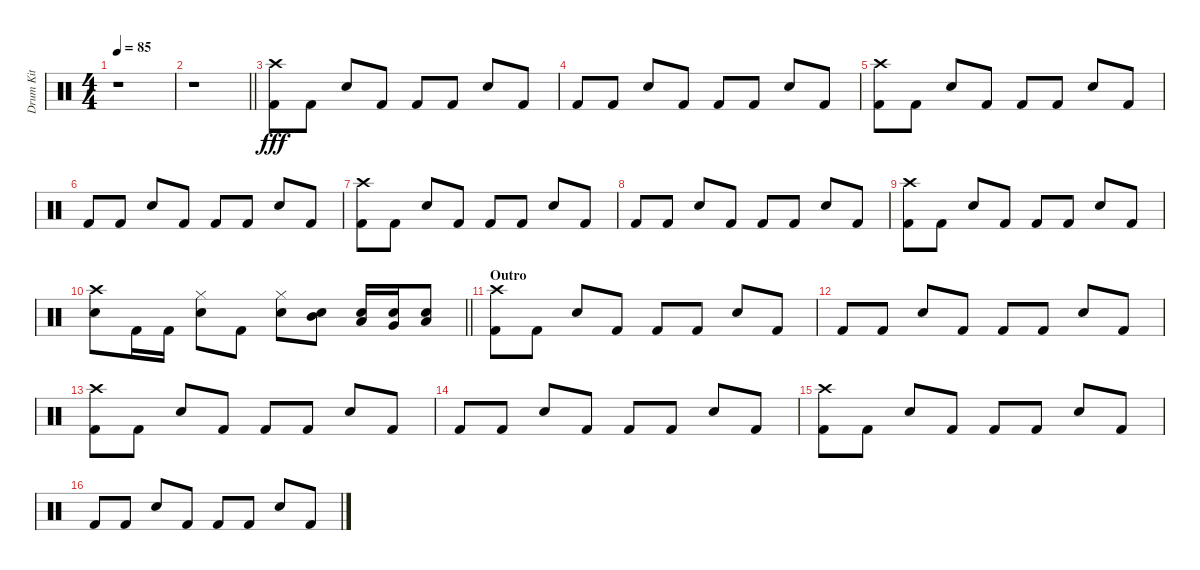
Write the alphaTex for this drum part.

\track ("Drum Kit" "Drum Kit") {instrument percussion}
\staff {score}
\articulation defaults
\ts (4 4)
\tempo 85
\clef neutral
\ks c
r.1{dy f} |
\barLineRight lightlight
r.1 |
("Crash high (hit)" "Kick (hit) 2").8{dy fff} "Kick (hit) 2".8 "Snare (hit) 2".8 "Kick (hit) 2".8 "Kick (hit) 2".8 "Kick (hit) 2".8 "Snare (hit) 2".8 "Kick (hit) 2".8 |
"Kick (hit) 2".8 "Kick (hit) 2".8 "Snare (hit) 2".8 "Kick (hit) 2".8 "Kick (hit) 2".8 "Kick (hit) 2".8 "Snare (hit) 2".8 "Kick (hit) 2".8 |
("Crash high (hit)" "Kick (hit) 2").8 "Kick (hit) 2".8 "Snare (hit) 2".8 "Kick (hit) 2".8 "Kick (hit) 2".8 "Kick (hit) 2".8 "Snare (hit) 2".8 "Kick (hit) 2".8 |
"Kick (hit) 2".8 "Kick (hit) 2".8 "Snare (hit) 2".8 "Kick (hit) 2".8 "Kick (hit) 2".8 "Kick (hit) 2".8 "Snare (hit) 2".8 "Kick (hit) 2".8 |
("Crash high (hit)" "Kick (hit) 2").8 "Kick (hit) 2".8 "Snare (hit) 2".8 "Kick (hit) 2".8 "Kick (hit) 2".8 "Kick (hit) 2".8 "Snare (hit) 2".8 "Kick (hit) 2".8 |
"Kick (hit) 2".8 "Kick (hit) 2".8 "Snare (hit) 2".8 "Kick (hit) 2".8 "Kick (hit) 2".8 "Kick (hit) 2".8 "Snare (hit) 2".8 "Kick (hit) 2".8 |
("Crash high (hit)" "Kick (hit) 2").8 "Kick (hit) 2".8 "Snare (hit) 2".8 "Kick (hit) 2".8 "Kick (hit) 2".8 "Kick (hit) 2".8 "Snare (hit) 2".8 "Kick (hit) 2".8 |
\barLineRight lightlight
("Crash high (hit)" "Snare (hit) 2").8 "Kick (hit) 2".16 "Kick (hit) 2".16 ("Hi-Hat (closed)" "Snare (hit) 2").8 "Kick (hit) 2".8 ("Hi-Hat (closed)" "Snare (hit) 2").8 ("Mid Tom (hit)" "Snare (hit) 2").8 ("Low Tom (hit)" "Snare (hit) 2").16 ("Very Low Tom (hit)" "Snare (hit) 2").16 ("Low Floor Tom (hit)" "Snare (hit) 2").8 |
\section ("" "Outro")
("Crash high (hit)" "Kick (hit) 2").8 "Kick (hit) 2".8 "Snare (hit) 2".8 "Kick (hit) 2".8 "Kick (hit) 2".8 "Kick (hit) 2".8 "Snare (hit) 2".8 "Kick (hit) 2".8 |
"Kick (hit) 2".8 "Kick (hit) 2".8 "Snare (hit) 2".8 "Kick (hit) 2".8 "Kick (hit) 2".8 "Kick (hit) 2".8 "Snare (hit) 2".8 "Kick (hit) 2".8 |
("Crash high (hit)" "Kick (hit) 2").8 "Kick (hit) 2".8 "Snare (hit) 2".8 "Kick (hit) 2".8 "Kick (hit) 2".8 "Kick (hit) 2".8 "Snare (hit) 2".8 "Kick (hit) 2".8 |
"Kick (hit) 2".8 "Kick (hit) 2".8 "Snare (hit) 2".8 "Kick (hit) 2".8 "Kick (hit) 2".8 "Kick (hit) 2".8 "Snare (hit) 2".8 "Kick (hit) 2".8 |
("Crash high (hit)" "Kick (hit) 2").8 "Kick (hit) 2".8 "Snare (hit) 2".8 "Kick (hit) 2".8 "Kick (hit) 2".8 "Kick (hit) 2".8 "Snare (hit) 2".8 "Kick (hit) 2".8 |
"Kick (hit) 2".8 "Kick (hit) 2".8 "Snare (hit) 2".8 "Kick (hit) 2".8 "Kick (hit) 2".8 "Kick (hit) 2".8 "Snare (hit) 2".8 "Kick (hit) 2".8
